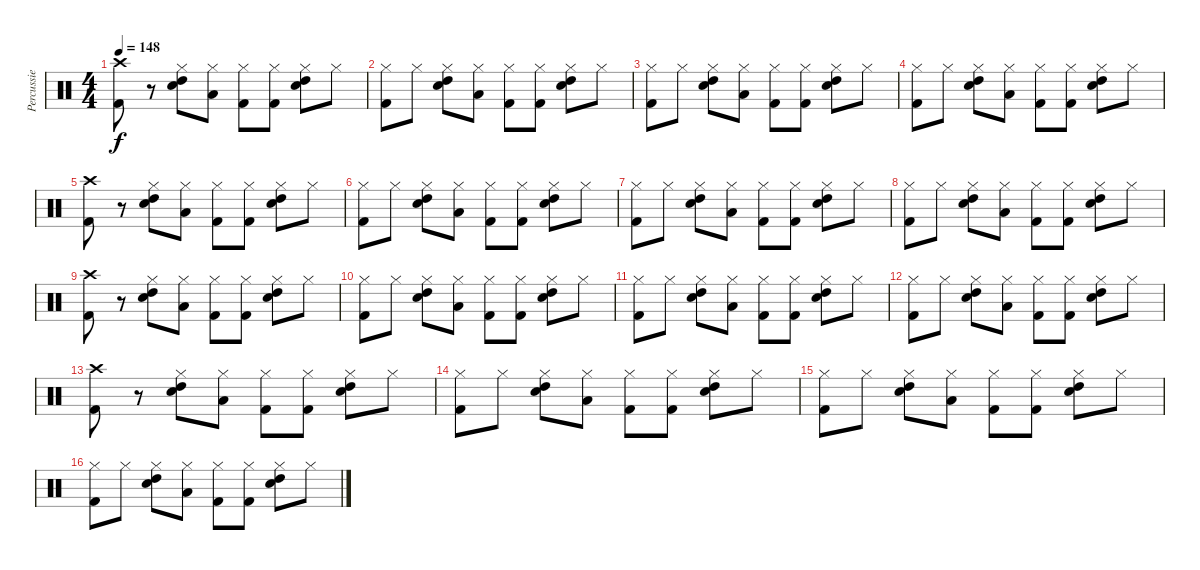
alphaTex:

\track ("Percussie" "Percussie") {instrument percussion}
\staff {score}
\articulation defaults
\ts (4 4)
\tempo 148
\clef neutral
\ks c
("Crash high (hit)" "Kick (hit) 2").8{dy f} r.8 ("Hi-Hat (closed)" "Electric Snare (hit)" "High Tom (hit)").8 ("Hi-Hat (closed)" "Low Tom (hit)").8 ("Hi-Hat (closed)" "Kick (hit) 2").8 ("Hi-Hat (closed)" "Kick (hit) 2").8 ("Hi-Hat (closed)" "Electric Snare (hit)" "High Tom (hit)").8 "Hi-Hat (closed)".8 |
("Hi-Hat (closed)" "Kick (hit) 2").8 "Hi-Hat (closed)".8 ("Hi-Hat (closed)" "Electric Snare (hit)" "High Tom (hit)").8 ("Hi-Hat (closed)" "Low Tom (hit)").8 ("Hi-Hat (closed)" "Kick (hit) 2").8 ("Hi-Hat (closed)" "Kick (hit) 2").8 ("Hi-Hat (closed)" "Electric Snare (hit)" "High Tom (hit)").8 "Hi-Hat (closed)".8 |
("Hi-Hat (closed)" "Kick (hit) 2").8 "Hi-Hat (closed)".8 ("Hi-Hat (closed)" "Electric Snare (hit)" "High Tom (hit)").8 ("Hi-Hat (closed)" "Low Tom (hit)").8 ("Hi-Hat (closed)" "Kick (hit) 2").8 ("Hi-Hat (closed)" "Kick (hit) 2").8 ("Hi-Hat (closed)" "Electric Snare (hit)" "High Tom (hit)").8 "Hi-Hat (closed)".8 |
("Hi-Hat (closed)" "Kick (hit) 2").8 "Hi-Hat (closed)".8 ("Hi-Hat (closed)" "Electric Snare (hit)" "High Tom (hit)").8 ("Hi-Hat (closed)" "Low Tom (hit)").8 ("Hi-Hat (closed)" "Kick (hit) 2").8 ("Hi-Hat (closed)" "Kick (hit) 2").8 ("Hi-Hat (closed)" "Electric Snare (hit)" "High Tom (hit)").8 "Hi-Hat (closed)".8 |
("Crash high (hit)" "Kick (hit) 2").8 r.8 ("Hi-Hat (closed)" "Electric Snare (hit)" "High Tom (hit)").8 ("Hi-Hat (closed)" "Low Tom (hit)").8 ("Hi-Hat (closed)" "Kick (hit) 2").8 ("Hi-Hat (closed)" "Kick (hit) 2").8 ("Hi-Hat (closed)" "Electric Snare (hit)" "High Tom (hit)").8 "Hi-Hat (closed)".8 |
("Hi-Hat (closed)" "Kick (hit) 2").8 "Hi-Hat (closed)".8 ("Hi-Hat (closed)" "Electric Snare (hit)" "High Tom (hit)").8 ("Hi-Hat (closed)" "Low Tom (hit)").8 ("Hi-Hat (closed)" "Kick (hit) 2").8 ("Hi-Hat (closed)" "Kick (hit) 2").8 ("Hi-Hat (closed)" "Electric Snare (hit)" "High Tom (hit)").8 "Hi-Hat (closed)".8 |
("Hi-Hat (closed)" "Kick (hit) 2").8 "Hi-Hat (closed)".8 ("Hi-Hat (closed)" "Electric Snare (hit)" "High Tom (hit)").8 ("Hi-Hat (closed)" "Low Tom (hit)").8 ("Hi-Hat (closed)" "Kick (hit) 2").8 ("Hi-Hat (closed)" "Kick (hit) 2").8 ("Hi-Hat (closed)" "Electric Snare (hit)" "High Tom (hit)").8 "Hi-Hat (closed)".8 |
("Hi-Hat (closed)" "Kick (hit) 2").8 "Hi-Hat (closed)".8 ("Hi-Hat (closed)" "Electric Snare (hit)" "High Tom (hit)").8 ("Hi-Hat (closed)" "Low Tom (hit)").8 ("Hi-Hat (closed)" "Kick (hit) 2").8 ("Hi-Hat (closed)" "Kick (hit) 2").8 ("Hi-Hat (closed)" "Electric Snare (hit)" "High Tom (hit)").8 "Hi-Hat (closed)".8 |
("Crash high (hit)" "Kick (hit) 2").8 r.8 ("Hi-Hat (closed)" "Electric Snare (hit)" "High Tom (hit)").8 ("Hi-Hat (closed)" "Low Tom (hit)").8 ("Hi-Hat (closed)" "Kick (hit) 2").8 ("Hi-Hat (closed)" "Kick (hit) 2").8 ("Hi-Hat (closed)" "Electric Snare (hit)" "High Tom (hit)").8 "Hi-Hat (closed)".8 |
("Hi-Hat (closed)" "Kick (hit) 2").8 "Hi-Hat (closed)".8 ("Hi-Hat (closed)" "Electric Snare (hit)" "High Tom (hit)").8 ("Hi-Hat (closed)" "Low Tom (hit)").8 ("Hi-Hat (closed)" "Kick (hit) 2").8 ("Hi-Hat (closed)" "Kick (hit) 2").8 ("Hi-Hat (closed)" "Electric Snare (hit)" "High Tom (hit)").8 "Hi-Hat (closed)".8 |
("Hi-Hat (closed)" "Kick (hit) 2").8 "Hi-Hat (closed)".8 ("Hi-Hat (closed)" "Electric Snare (hit)" "High Tom (hit)").8 ("Hi-Hat (closed)" "Low Tom (hit)").8 ("Hi-Hat (closed)" "Kick (hit) 2").8 ("Hi-Hat (closed)" "Kick (hit) 2").8 ("Hi-Hat (closed)" "Electric Snare (hit)" "High Tom (hit)").8 "Hi-Hat (closed)".8 |
("Hi-Hat (closed)" "Kick (hit) 2").8 "Hi-Hat (closed)".8 ("Hi-Hat (closed)" "Electric Snare (hit)" "High Tom (hit)").8 ("Hi-Hat (closed)" "Low Tom (hit)").8 ("Hi-Hat (closed)" "Kick (hit) 2").8 ("Hi-Hat (closed)" "Kick (hit) 2").8 ("Hi-Hat (closed)" "Electric Snare (hit)" "High Tom (hit)").8 "Hi-Hat (closed)".8 |
("Crash high (hit)" "Kick (hit) 2").8 r.8 ("Hi-Hat (closed)" "Electric Snare (hit)" "High Tom (hit)").8 ("Hi-Hat (closed)" "Low Tom (hit)").8 ("Hi-Hat (closed)" "Kick (hit) 2").8 ("Hi-Hat (closed)" "Kick (hit) 2").8 ("Hi-Hat (closed)" "Electric Snare (hit)" "High Tom (hit)").8 "Hi-Hat (closed)".8 |
("Hi-Hat (closed)" "Kick (hit) 2").8 "Hi-Hat (closed)".8 ("Hi-Hat (closed)" "Electric Snare (hit)" "High Tom (hit)").8 ("Hi-Hat (closed)" "Low Tom (hit)").8 ("Hi-Hat (closed)" "Kick (hit) 2").8 ("Hi-Hat (closed)" "Kick (hit) 2").8 ("Hi-Hat (closed)" "Electric Snare (hit)" "High Tom (hit)").8 "Hi-Hat (closed)".8 |
("Hi-Hat (closed)" "Kick (hit) 2").8 "Hi-Hat (closed)".8 ("Hi-Hat (closed)" "Electric Snare (hit)" "High Tom (hit)").8 ("Hi-Hat (closed)" "Low Tom (hit)").8 ("Hi-Hat (closed)" "Kick (hit) 2").8 ("Hi-Hat (closed)" "Kick (hit) 2").8 ("Hi-Hat (closed)" "Electric Snare (hit)" "High Tom (hit)").8 "Hi-Hat (closed)".8 |
("Hi-Hat (closed)" "Kick (hit) 2").8 "Hi-Hat (closed)".8 ("Hi-Hat (closed)" "Electric Snare (hit)" "High Tom (hit)").8 ("Hi-Hat (closed)" "Low Tom (hit)").8 ("Hi-Hat (closed)" "Kick (hit) 2").8 ("Hi-Hat (closed)" "Kick (hit) 2").8 ("Hi-Hat (closed)" "Electric Snare (hit)" "High Tom (hit)").8 "Hi-Hat (closed)".8
